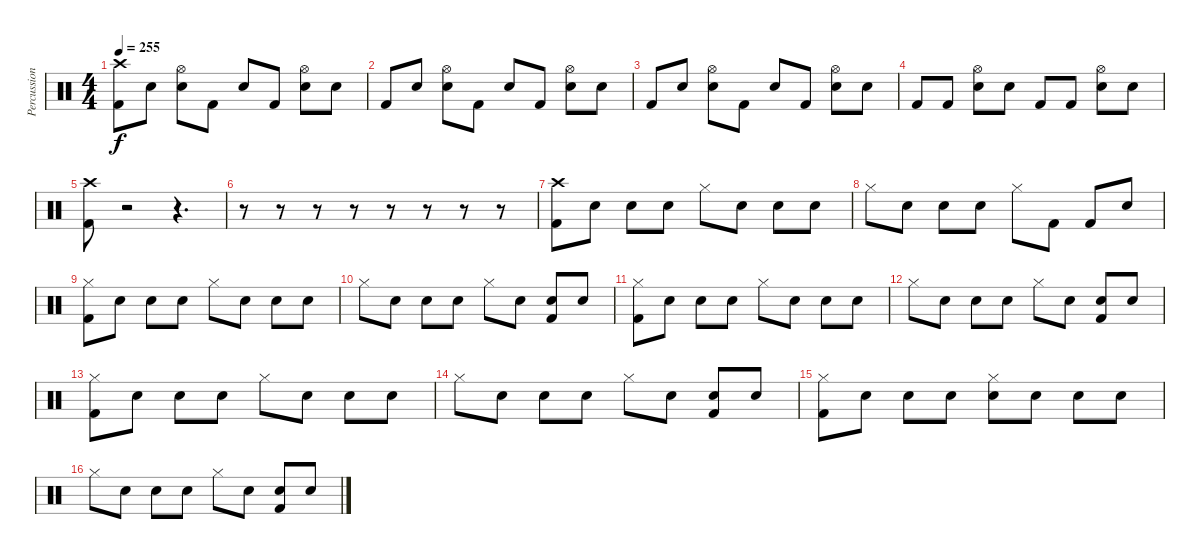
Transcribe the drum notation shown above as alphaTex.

\track ("Percussion" "Percussion") {instrument percussion}
\staff {score}
\articulation defaults
\ts (4 4)
\tempo 255
\clef neutral
\ks c
("Kick (hit) 2" "Crash high (hit)").8{dy f} "Snare (hit)".8 ("Snare (hit) 2" "Hi-Hat (open)").8 "Kick (hit) 2".8 "Snare (hit)".8 "Kick (hit) 2".8 ("Snare (hit) 2" "Hi-Hat (open)").8 "Snare (hit)".8 |
"Kick (hit) 2".8 "Snare (hit)".8 ("Snare (hit) 2" "Hi-Hat (open)").8 "Kick (hit) 2".8 "Snare (hit)".8 "Kick (hit) 2".8 ("Snare (hit) 2" "Hi-Hat (open)").8 "Snare (hit)".8 |
"Kick (hit) 2".8 "Snare (hit)".8 ("Snare (hit) 2" "Hi-Hat (open)").8 "Kick (hit) 2".8 "Snare (hit)".8 "Kick (hit) 2".8 ("Snare (hit) 2" "Hi-Hat (open)").8 "Snare (hit)".8 |
"Kick (hit) 2".8 "Kick (hit) 2".8 ("Snare (hit) 2" "Hi-Hat (open)").8 "Snare (hit)".8 "Kick (hit) 2".8 "Kick (hit) 2".8 ("Snare (hit) 2" "Hi-Hat (open)").8 "Snare (hit)".8 |
("Kick (hit) 2" "Crash high (hit)").8 r.2 r.4{d} |
r.8 r.8 r.8 r.8 r.8 r.8 r.8 r.8 |
("Kick (hit) 2" "Crash high (hit)").8 "Snare (hit)".8 "Snare (hit)".8 "Snare (hit)".8 "Hi-Hat (closed)".8 "Snare (hit)".8 "Snare (hit)".8 "Snare (hit)".8 |
"Hi-Hat (closed)".8 "Snare (hit)".8 "Snare (hit)".8 "Snare (hit)".8 "Hi-Hat (closed)".8 "Kick (hit) 2".8 "Kick (hit) 2".8 "Snare (hit)".8 |
("Kick (hit) 2" "Hi-Hat (closed)").8 "Snare (hit)".8 "Snare (hit)".8 "Snare (hit)".8 "Hi-Hat (closed)".8 "Snare (hit)".8 "Snare (hit)".8 "Snare (hit)".8 |
"Hi-Hat (closed)".8 "Snare (hit)".8 "Snare (hit)".8 "Snare (hit)".8 "Hi-Hat (closed)".8 "Snare (hit)".8 ("Kick (hit) 2" "Snare (hit)").8 "Snare (hit)".8 |
("Kick (hit) 2" "Hi-Hat (closed)").8 "Snare (hit)".8 "Snare (hit)".8 "Snare (hit)".8 "Hi-Hat (closed)".8 "Snare (hit)".8 "Snare (hit)".8 "Snare (hit)".8 |
"Hi-Hat (closed)".8 "Snare (hit)".8 "Snare (hit)".8 "Snare (hit)".8 "Hi-Hat (closed)".8 "Snare (hit)".8 ("Kick (hit) 2" "Snare (hit)").8 "Snare (hit)".8 |
("Kick (hit) 2" "Hi-Hat (closed)").8 "Snare (hit)".8 "Snare (hit)".8 "Snare (hit)".8 "Hi-Hat (closed)".8 "Snare (hit)".8 "Snare (hit)".8 "Snare (hit)".8 |
"Hi-Hat (closed)".8 "Snare (hit)".8 "Snare (hit)".8 "Snare (hit)".8 "Hi-Hat (closed)".8 "Snare (hit)".8 ("Kick (hit) 2" "Snare (hit)").8 "Snare (hit)".8 |
("Kick (hit) 2" "Hi-Hat (closed)").8 "Snare (hit)".8 "Snare (hit)".8 "Snare (hit)".8 ("Snare (hit) 2" "Hi-Hat (closed)").8 "Snare (hit)".8 "Snare (hit)".8 "Snare (hit)".8 |
"Hi-Hat (closed)".8 "Snare (hit)".8 "Snare (hit)".8 "Snare (hit)".8 "Hi-Hat (closed)".8 "Snare (hit)".8 ("Kick (hit) 2" "Snare (hit)").8 "Snare (hit)".8
